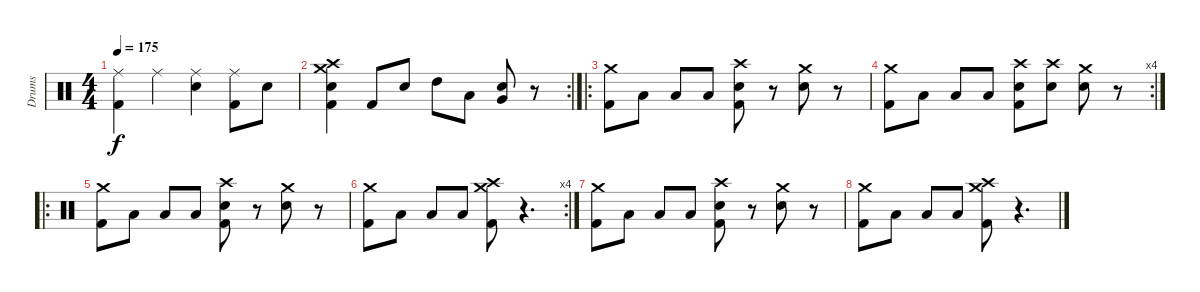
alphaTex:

\track ("Drums" "Drums") {instrument percussion}
\staff {score}
\articulation defaults
\ts (4 4)
\tempo 175
\clef neutral
\ks c
("Ride (middle)" "Kick (hit) 2").4{dy f} "Ride (middle)".4 ("Ride (middle)" "Snare (hit) 2").4 ("Ride (middle)" "Kick (hit) 2").8 "Snare (hit) 2".8 |
\rc 2
("Crash medium (hit)" "Crash high (hit)" "Snare (hit) 2" "Kick (hit) 2").4 "Kick (hit) 2".8 "Snare (hit) 2".8 "High Tom (hit)".8 "Low Tom (hit)".8 ("Snare (hit) 2" "Very Low Tom (hit)").8 r.8 |
\ro
("Crash medium (hit)" "Kick (hit) 2").8 "Low Tom (hit)".8 "Low Tom (hit)".8 "Low Tom (hit)".8 ("Crash high (hit)" "Snare (hit) 2" "Kick (hit) 2").8 r.8 ("Crash medium (hit)" "Snare (hit) 2").8 r.8 |
\rc 4
("Crash medium (hit)" "Kick (hit) 2").8 "Low Tom (hit)".8 "Low Tom (hit)".8 "Low Tom (hit)".8 ("Crash high (hit)" "Snare (hit) 2" "Kick (hit) 2").8 ("Crash high (hit)" "Snare (hit) 2").8 ("Crash medium (hit)" "Snare (hit) 2").8 r.8 |
\ro
("Crash medium (hit)" "Kick (hit) 2").8 "Low Tom (hit)".8 "Low Tom (hit)".8 "Low Tom (hit)".8 ("Crash high (hit)" "Snare (hit) 2" "Kick (hit) 2").8 r.8 ("Crash medium (hit)" "Snare (hit) 2").8 r.8 |
\rc 4
("Crash medium (hit)" "Kick (hit) 2").8 "Low Tom (hit)".8 "Low Tom (hit)".8 "Low Tom (hit)".8 ("Crash high (hit)" "Crash medium (hit)" "Kick (hit) 2").8 r.4{d} |
("Crash medium (hit)" "Kick (hit) 2").8 "Low Tom (hit)".8 "Low Tom (hit)".8 "Low Tom (hit)".8 ("Crash high (hit)" "Snare (hit) 2" "Kick (hit) 2").8 r.8 ("Crash medium (hit)" "Snare (hit) 2").8 r.8 |
("Crash medium (hit)" "Kick (hit) 2").8 "Low Tom (hit)".8 "Low Tom (hit)".8 "Low Tom (hit)".8 ("Crash high (hit)" "Crash medium (hit)" "Kick (hit) 2").8 r.4{d}
